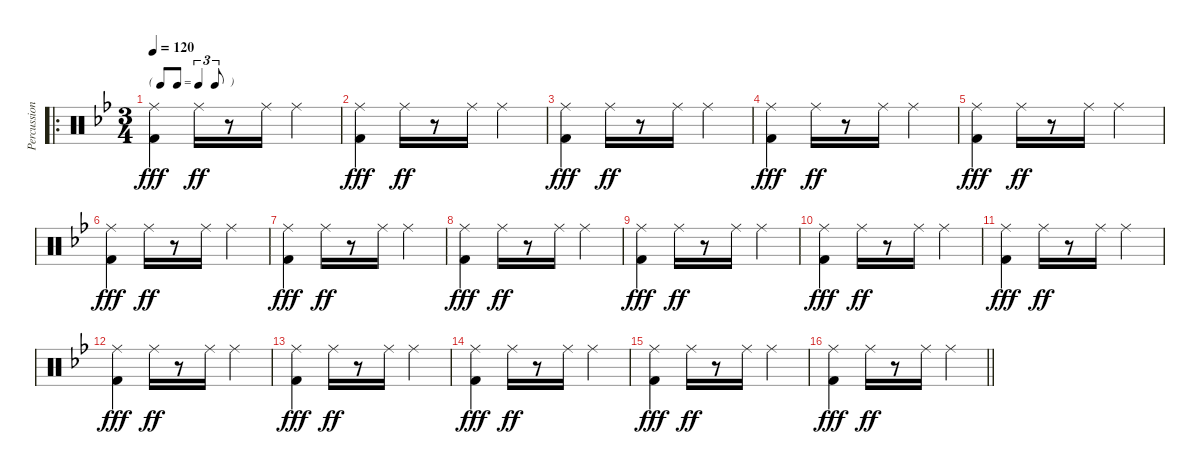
\track ("Percussion" "Percussion") {instrument percussion}
\staff {score}
\articulation defaults
\ro
\ts (3 4)
\tf triplet8th
\tempo 120
\clef neutral
\ks bb
("Ride (middle)" "Kick (hit) 2").4{dy fff} "Ride (middle)".16{dy ff} r.8 "Ride (middle)".16 "Ride (middle)".4 |
("Ride (middle)" "Kick (hit) 2").4{dy fff} "Ride (middle)".16{dy ff} r.8 "Ride (middle)".16 "Ride (middle)".4 |
("Ride (middle)" "Kick (hit) 2").4{dy fff} "Ride (middle)".16{dy ff} r.8 "Ride (middle)".16 "Ride (middle)".4 |
("Ride (middle)" "Kick (hit) 2").4{dy fff} "Ride (middle)".16{dy ff} r.8 "Ride (middle)".16 "Ride (middle)".4 |
("Ride (middle)" "Kick (hit) 2").4{dy fff} "Ride (middle)".16{dy ff} r.8 "Ride (middle)".16 "Ride (middle)".4 |
("Ride (middle)" "Kick (hit) 2").4{dy fff} "Ride (middle)".16{dy ff} r.8 "Ride (middle)".16 "Ride (middle)".4 |
("Ride (middle)" "Kick (hit) 2").4{dy fff} "Ride (middle)".16{dy ff} r.8 "Ride (middle)".16 "Ride (middle)".4 |
("Ride (middle)" "Kick (hit) 2").4{dy fff} "Ride (middle)".16{dy ff} r.8 "Ride (middle)".16 "Ride (middle)".4 |
("Ride (middle)" "Kick (hit) 2").4{dy fff} "Ride (middle)".16{dy ff} r.8 "Ride (middle)".16 "Ride (middle)".4 |
("Ride (middle)" "Kick (hit) 2").4{dy fff} "Ride (middle)".16{dy ff} r.8 "Ride (middle)".16 "Ride (middle)".4 |
("Ride (middle)" "Kick (hit) 2").4{dy fff} "Ride (middle)".16{dy ff} r.8 "Ride (middle)".16 "Ride (middle)".4 |
("Ride (middle)" "Kick (hit) 2").4{dy fff} "Ride (middle)".16{dy ff} r.8 "Ride (middle)".16 "Ride (middle)".4 |
("Ride (middle)" "Kick (hit) 2").4{dy fff} "Ride (middle)".16{dy ff} r.8 "Ride (middle)".16 "Ride (middle)".4 |
("Ride (middle)" "Kick (hit) 2").4{dy fff} "Ride (middle)".16{dy ff} r.8 "Ride (middle)".16 "Ride (middle)".4 |
("Ride (middle)" "Kick (hit) 2").4{dy fff} "Ride (middle)".16{dy ff} r.8 "Ride (middle)".16 "Ride (middle)".4 |
\barLineRight lightlight
("Ride (middle)" "Kick (hit) 2").4{dy fff} "Ride (middle)".16{dy ff} r.8 "Ride (middle)".16 "Ride (middle)".4
